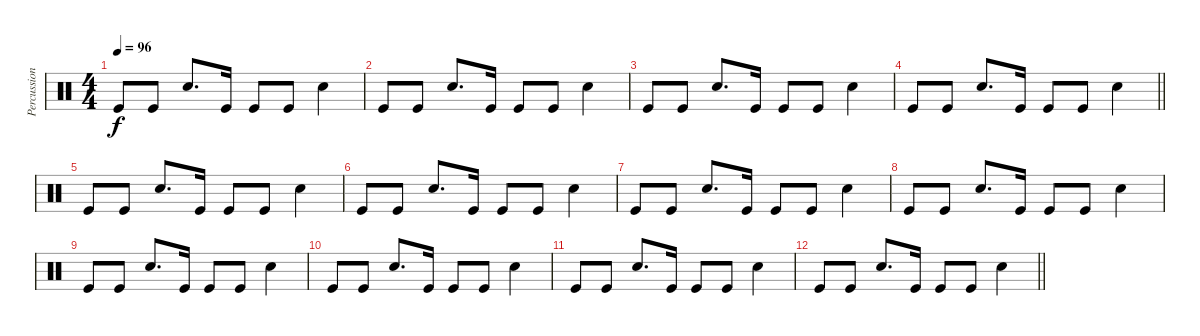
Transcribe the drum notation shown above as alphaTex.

\track ("Percussion" "Percussion") {instrument percussion}
\staff {score}
\articulation defaults
\ts (4 4)
\tempo 96
\clef neutral
\ks c "Kick (hit)".8{dy f} "Kick (hit)".8 "Electric Snare (hit)".8{d} "Kick (hit)".16 "Kick (hit)".8 "Kick (hit)".8 "Electric Snare (hit)".4
|
"Kick (hit)".8 "Kick (hit)".8 "Electric Snare (hit)".8{d} "Kick (hit)".16 "Kick (hit)".8 "Kick (hit)".8 "Electric Snare (hit)".4 |
"Kick (hit)".8 "Kick (hit)".8 "Electric Snare (hit)".8{d} "Kick (hit)".16 "Kick (hit)".8 "Kick (hit)".8 "Electric Snare (hit)".4 |
\barLineRight lightlight "Kick (hit)".8 "Kick (hit)".8 "Electric Snare (hit)".8{d} "Kick (hit)".16 "Kick (hit)".8 "Kick (hit)".8 "Electric Snare (hit)".4
|
"Kick (hit)".8 "Kick (hit)".8 "Electric Snare (hit)".8{d} "Kick (hit)".16 "Kick (hit)".8 "Kick (hit)".8 "Electric Snare (hit)".4 |
"Kick (hit)".8 "Kick (hit)".8 "Electric Snare (hit)".8{d} "Kick (hit)".16 "Kick (hit)".8 "Kick (hit)".8 "Electric Snare (hit)".4 |
"Kick (hit)".8 "Kick (hit)".8 "Electric Snare (hit)".8{d} "Kick (hit)".16 "Kick (hit)".8 "Kick (hit)".8 "Electric Snare (hit)".4 |
"Kick (hit)".8 "Kick (hit)".8 "Electric Snare (hit)".8{d} "Kick (hit)".16 "Kick (hit)".8 "Kick (hit)".8 "Electric Snare (hit)".4 |
"Kick (hit)".8 "Kick (hit)".8 "Electric Snare (hit)".8{d} "Kick (hit)".16 "Kick (hit)".8 "Kick (hit)".8 "Electric Snare (hit)".4 |
"Kick (hit)".8 "Kick (hit)".8 "Electric Snare (hit)".8{d} "Kick (hit)".16 "Kick (hit)".8 "Kick (hit)".8 "Electric Snare (hit)".4 |
"Kick (hit)".8 "Kick (hit)".8 "Electric Snare (hit)".8{d} "Kick (hit)".16 "Kick (hit)".8 "Kick (hit)".8 "Electric Snare (hit)".4 |
\barLineRight lightlight "Kick (hit)".8 "Kick (hit)".8 "Electric Snare (hit)".8{d} "Kick (hit)".16 "Kick (hit)".8 "Kick (hit)".8 "Electric Snare (hit)".4
